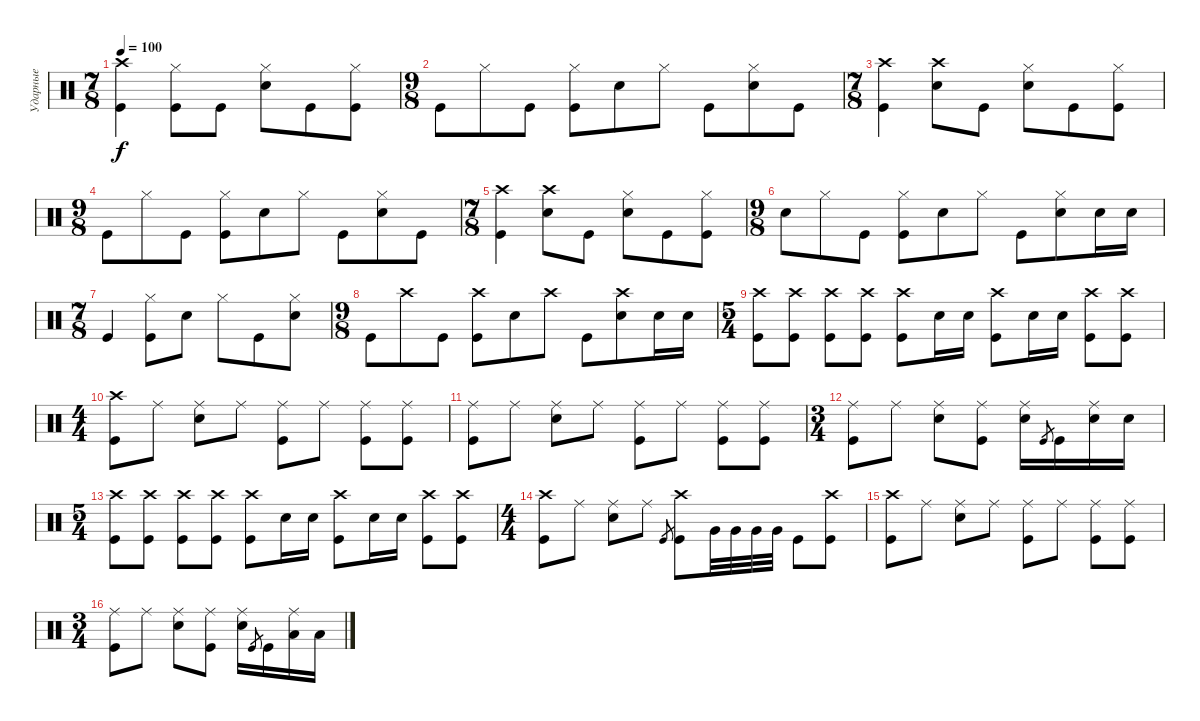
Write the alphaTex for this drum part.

\track ("Ударные" "Ударные") {instrument percussion}
\staff {score}
\articulation defaults
\ts (7 8)
\tempo 100
\clef neutral
\ks c
("Crash high (hit)" "Kick (hit)").4{dy f} ("Hi-Hat (closed)" "Kick (hit)").8 "Kick (hit)".8 ("Hi-Hat (closed)" "Electric Snare (hit)").8 "Kick (hit)".8 ("Hi-Hat (closed)" "Kick (hit)").8 |
\ts (9 8)
"Kick (hit)".8 "Hi-Hat (closed)".8 "Kick (hit)".8 ("Hi-Hat (closed)" "Kick (hit)").8 "Electric Snare (hit)".8 "Hi-Hat (closed)".8 "Kick (hit)".8 ("Hi-Hat (closed)" "Electric Snare (hit)").8 "Kick (hit)".8 |
\ts (7 8)
("Crash high (hit)" "Kick (hit)").4 ("Crash high (hit)" "Electric Snare (hit)").8 "Kick (hit)".8 ("Hi-Hat (closed)" "Electric Snare (hit)").8 "Kick (hit)".8 ("Hi-Hat (closed)" "Kick (hit)").8 |
\ts (9 8)
"Kick (hit)".8 "Hi-Hat (closed)".8 "Kick (hit)".8 ("Hi-Hat (closed)" "Kick (hit)").8 "Electric Snare (hit)".8 "Hi-Hat (closed)".8 "Kick (hit)".8 ("Hi-Hat (closed)" "Electric Snare (hit)").8 "Kick (hit)".8 |
\ts (7 8)
("Crash high (hit)" "Kick (hit)").4 ("Crash high (hit)" "Electric Snare (hit)").8 "Kick (hit)".8 ("Hi-Hat (closed)" "Electric Snare (hit)").8 "Kick (hit)".8 ("Hi-Hat (closed)" "Kick (hit)").8 |
\ts (9 8)
"Electric Snare (hit)".8 "Hi-Hat (closed)".8 "Kick (hit)".8 ("Hi-Hat (closed)" "Kick (hit)").8 "Electric Snare (hit)".8 "Hi-Hat (closed)".8 "Kick (hit)".8 ("Hi-Hat (closed)" "Electric Snare (hit)").8 "Electric Snare (hit)".16 "Electric Snare (hit)".16 |
\ts (7 8)
"Kick (hit)".4 ("Hi-Hat (closed)" "Kick (hit)").8 "Electric Snare (hit)".8 "Hi-Hat (closed)".8 "Kick (hit)".8 ("Hi-Hat (closed)" "Electric Snare (hit)").8 |
\ts (9 8)
"Kick (hit)".8 "Crash high (hit)".8 "Kick (hit)".8 ("Crash high (hit)" "Kick (hit)").8 "Electric Snare (hit)".8 "Crash high (hit)".8 "Kick (hit)".8 ("Crash high (hit)" "Electric Snare (hit)").8 "Electric Snare (hit)".16 "Electric Snare (hit)".16 |
\ts (5 4)
("Crash high (hit)" "Kick (hit)").8 ("Crash high (hit)" "Kick (hit)").8 ("Crash high (hit)" "Kick (hit)").8 ("Crash high (hit)" "Kick (hit)").8 ("Crash high (hit)" "Kick (hit)").8 "Electric Snare (hit)".16 "Electric Snare (hit)".16 ("Crash high (hit)" "Kick (hit)").8 "Electric Snare (hit)".16 "Electric Snare (hit)".16 ("Crash high (hit)" "Kick (hit)").8 ("Crash high (hit)" "Kick (hit)").8 |
\ts (4 4)
("Crash high (hit)" "Kick (hit)").8 "Ride (middle)".8 ("Ride (middle)" "Electric Snare (hit)").8 "Ride (middle)".8 ("Ride (middle)" "Kick (hit)").8 "Ride (middle)".8 ("Ride (middle)" "Kick (hit)").8 ("Ride (middle)" "Kick (hit)").8 |
("Ride (middle)" "Kick (hit)").8 "Ride (middle)".8 ("Ride (middle)" "Electric Snare (hit)").8 "Ride (middle)".8 ("Ride (middle)" "Kick (hit)").8 "Ride (middle)".8 ("Ride (middle)" "Kick (hit)").8 ("Ride (middle)" "Kick (hit)").8 |
\ts (3 4)
("Ride (middle)" "Kick (hit)").8 "Ride (middle)".8 ("Ride (middle)" "Electric Snare (hit)").8 ("Ride (middle)" "Kick (hit)").8 ("Ride (middle)" "Electric Snare (hit)").16 "Kick (hit)".8{gr} "Kick (hit)".16 ("Ride (middle)" "Electric Snare (hit)").16 "Electric Snare (hit)".16 |
\ts (5 4)
("Crash high (hit)" "Kick (hit)").8 ("Crash high (hit)" "Kick (hit)").8 ("Crash high (hit)" "Kick (hit)").8 ("Crash high (hit)" "Kick (hit)").8 ("Crash high (hit)" "Kick (hit)").8 "Electric Snare (hit)".16 "Electric Snare (hit)".16 ("Crash high (hit)" "Kick (hit)").8 "Electric Snare (hit)".16 "Electric Snare (hit)".16 ("Crash high (hit)" "Kick (hit)").8 ("Crash high (hit)" "Kick (hit)").8 |
\ts (4 4)
("Crash high (hit)" "Kick (hit)").8 "Ride (middle)".8 ("Ride (middle)" "Electric Snare (hit)").8 "Ride (middle)".8 "Kick (hit)".8{gr} ("Crash high (hit)" "Kick (hit)").8 "Very Low Tom (hit)".32 "Very Low Tom (hit)".32 "Very Low Tom (hit)".32 "Very Low Tom (hit)".32 "Kick (hit)".8 ("Crash high (hit)" "Kick (hit)").8 |
("Crash high (hit)" "Kick (hit)").8 "Ride (middle)".8 ("Ride (middle)" "Electric Snare (hit)").8 "Ride (middle)".8 ("Ride (middle)" "Kick (hit)").8 "Ride (middle)".8 ("Ride (middle)" "Kick (hit)").8 ("Ride (middle)" "Kick (hit)").8 |
\ts (3 4)
("Ride (middle)" "Kick (hit)").8 "Ride (middle)".8 ("Ride (middle)" "Electric Snare (hit)").8 ("Ride (middle)" "Kick (hit)").8 ("Ride (middle)" "Electric Snare (hit)").16 "Kick (hit)".8{gr} "Kick (hit)".16 ("Ride (middle)" "Low Tom (hit)").16 "Low Tom (hit)".16
